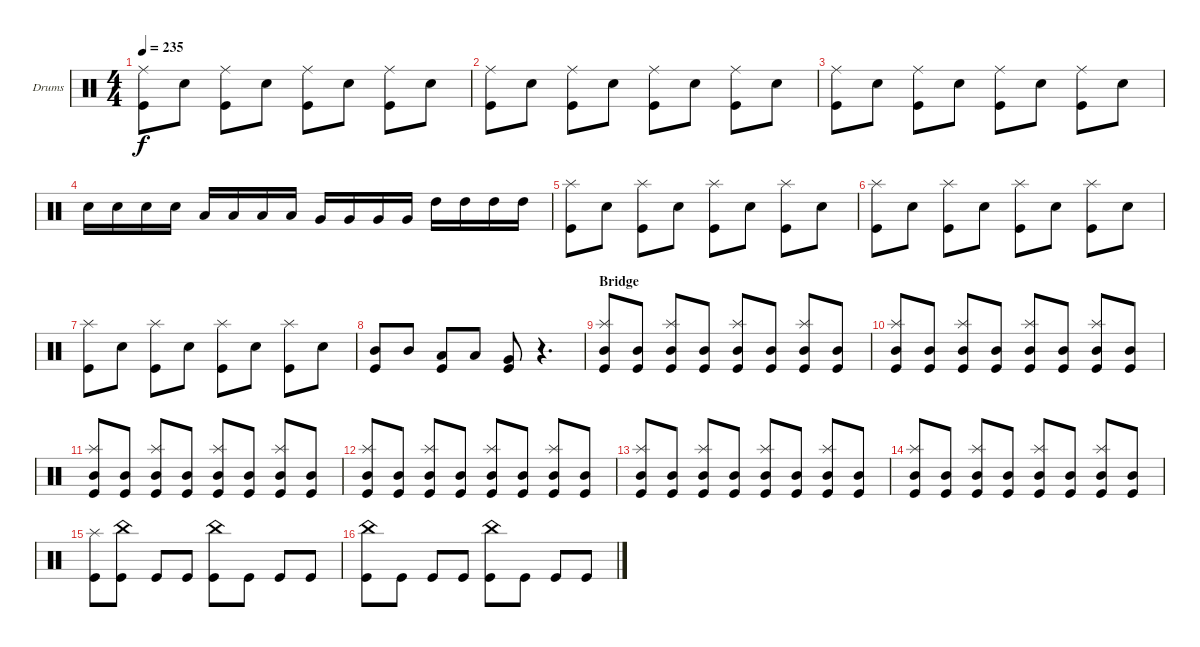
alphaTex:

\defaultSystemsLayout 4
\bracketExtendMode groupsimilarinstruments
\firstSystemTrackNameOrientation horizontal
\otherSystemsTrackNameOrientation horizontal
\track ("Drumkit" "Drums") {instrument percussion}
\staff {score}
\articulation defaults
\ts (4 4)
\tempo 235
\clef neutral
\ks c
("Kick (hit)" "Ride (middle)").8{dy f} "Snare (hit) 2".8 ("Kick (hit)" "Ride (middle)").8 "Snare (hit) 2".8 ("Kick (hit)" "Ride (middle)").8 "Snare (hit) 2".8 ("Kick (hit)" "Ride (middle)").8 "Snare (hit) 2".8 |
("Kick (hit)" "Ride (middle)").8 "Snare (hit) 2".8 ("Kick (hit)" "Ride (middle)").8 "Snare (hit) 2".8 ("Kick (hit)" "Ride (middle)").8 "Snare (hit) 2".8 ("Kick (hit)" "Ride (middle)").8 "Snare (hit) 2".8 |
("Kick (hit)" "Ride (middle)").8 "Snare (hit) 2".8 ("Kick (hit)" "Ride (middle)").8 "Snare (hit) 2".8 ("Kick (hit)" "Ride (middle)").8 "Snare (hit) 2".8 ("Kick (hit)" "Ride (middle)").8 "Snare (hit) 2".8 |
"Snare (hit) 2".16 "Snare (hit) 2".16 "Snare (hit) 2".16 "Snare (hit) 2".16 "Low Tom (hit)".16 "Low Tom (hit)".16 "Low Tom (hit)".16 "Low Tom (hit)".16 "Very Low Tom (hit)".16 "Very Low Tom (hit)".16 "Very Low Tom (hit)".16 "Very Low Tom (hit)".16 "High Tom (hit)".16 "High Tom (hit)".16 "High Tom (hit)".16 "High Tom (hit)".16 |
("Splash (hit)" "Kick (hit)").8 "Snare (hit) 2".8 ("Splash (hit)" "Kick (hit)").8 "Snare (hit) 2".8 ("Splash (hit)" "Kick (hit)").8 "Snare (hit) 2".8 ("Splash (hit)" "Kick (hit)").8 "Snare (hit) 2".8 |
("Splash (hit)" "Kick (hit)").8 "Snare (hit) 2".8 ("Splash (hit)" "Kick (hit)").8 "Snare (hit) 2".8 ("Splash (hit)" "Kick (hit)").8 "Snare (hit) 2".8 ("Splash (hit)" "Kick (hit)").8 "Snare (hit) 2".8 |
("Splash (hit)" "Kick (hit)").8 "Snare (hit) 2".8 ("Splash (hit)" "Kick (hit)").8 "Snare (hit) 2".8 ("Splash (hit)" "Kick (hit)").8 "Snare (hit) 2".8 ("Splash (hit)" "Kick (hit)").8 "Snare (hit) 2".8 |
("Mid Tom (hit)" "Kick (hit)").8 "Mid Tom (hit)".8 ("Low Tom (hit)" "Kick (hit)").8 "Low Tom (hit)".8 ("Very Low Tom (hit)" "Kick (hit)").8 r.4{d} |
\section ("" "Bridge")
("Kick (hit)" "Splash (hit)" "Mid Tom (hit)").8 ("Kick (hit)" "Mid Tom (hit)").8 ("Kick (hit)" "Splash (hit)" "Mid Tom (hit)").8 ("Kick (hit)" "Mid Tom (hit)").8 ("Kick (hit)" "Splash (hit)" "Mid Tom (hit)").8 ("Kick (hit)" "Mid Tom (hit)").8 ("Kick (hit)" "Splash (hit)" "Mid Tom (hit)").8 ("Kick (hit)" "Mid Tom (hit)").8 |
("Kick (hit)" "Splash (hit)" "Mid Tom (hit)").8 ("Kick (hit)" "Mid Tom (hit)").8 ("Kick (hit)" "Splash (hit)" "Mid Tom (hit)").8 ("Kick (hit)" "Mid Tom (hit)").8 ("Kick (hit)" "Splash (hit)" "Mid Tom (hit)").8 ("Kick (hit)" "Mid Tom (hit)").8 ("Kick (hit)" "Splash (hit)" "Mid Tom (hit)").8 ("Kick (hit)" "Mid Tom (hit)").8 |
("Kick (hit)" "Splash (hit)" "Mid Tom (hit)").8 ("Kick (hit)" "Mid Tom (hit)").8 ("Kick (hit)" "Splash (hit)" "Mid Tom (hit)").8 ("Kick (hit)" "Mid Tom (hit)").8 ("Kick (hit)" "Splash (hit)" "Mid Tom (hit)").8 ("Kick (hit)" "Mid Tom (hit)").8 ("Kick (hit)" "Splash (hit)" "Mid Tom (hit)").8 ("Kick (hit)" "Mid Tom (hit)").8 |
("Kick (hit)" "Splash (hit)" "Mid Tom (hit)").8 ("Kick (hit)" "Mid Tom (hit)").8 ("Kick (hit)" "Splash (hit)" "Mid Tom (hit)").8 ("Kick (hit)" "Mid Tom (hit)").8 ("Kick (hit)" "Splash (hit)" "Mid Tom (hit)").8 ("Kick (hit)" "Mid Tom (hit)").8 ("Kick (hit)" "Splash (hit)" "Mid Tom (hit)").8 ("Kick (hit)" "Mid Tom (hit)").8 |
("Kick (hit)" "Splash (hit)" "Mid Tom (hit)").8 ("Kick (hit)" "Mid Tom (hit)").8 ("Kick (hit)" "Splash (hit)" "Mid Tom (hit)").8 ("Kick (hit)" "Mid Tom (hit)").8 ("Kick (hit)" "Splash (hit)" "Mid Tom (hit)").8 ("Kick (hit)" "Mid Tom (hit)").8 ("Kick (hit)" "Splash (hit)" "Mid Tom (hit)").8 ("Kick (hit)" "Mid Tom (hit)").8 |
("Kick (hit)" "Splash (hit)" "Mid Tom (hit)").8 ("Kick (hit)" "Mid Tom (hit)").8 ("Kick (hit)" "Splash (hit)" "Mid Tom (hit)").8 ("Kick (hit)" "Mid Tom (hit)").8 ("Kick (hit)" "Splash (hit)" "Mid Tom (hit)").8 ("Kick (hit)" "Mid Tom (hit)").8 ("Kick (hit)" "Splash (hit)" "Mid Tom (hit)").8 ("Kick (hit)" "Mid Tom (hit)").8 |
("Kick (hit)" "Splash (hit)").8 ("Kick (hit)" "China (hit)").8 "Kick (hit)".8 "Kick (hit)".8 ("Kick (hit)" "China (hit)").8 "Kick (hit)".8 "Kick (hit)".8 "Kick (hit)".8 |
("Kick (hit)" "China (hit)").8 "Kick (hit)".8 "Kick (hit)".8 "Kick (hit)".8 ("Kick (hit)" "China (hit)").8 "Kick (hit)".8 "Kick (hit)".8 "Kick (hit)".8
